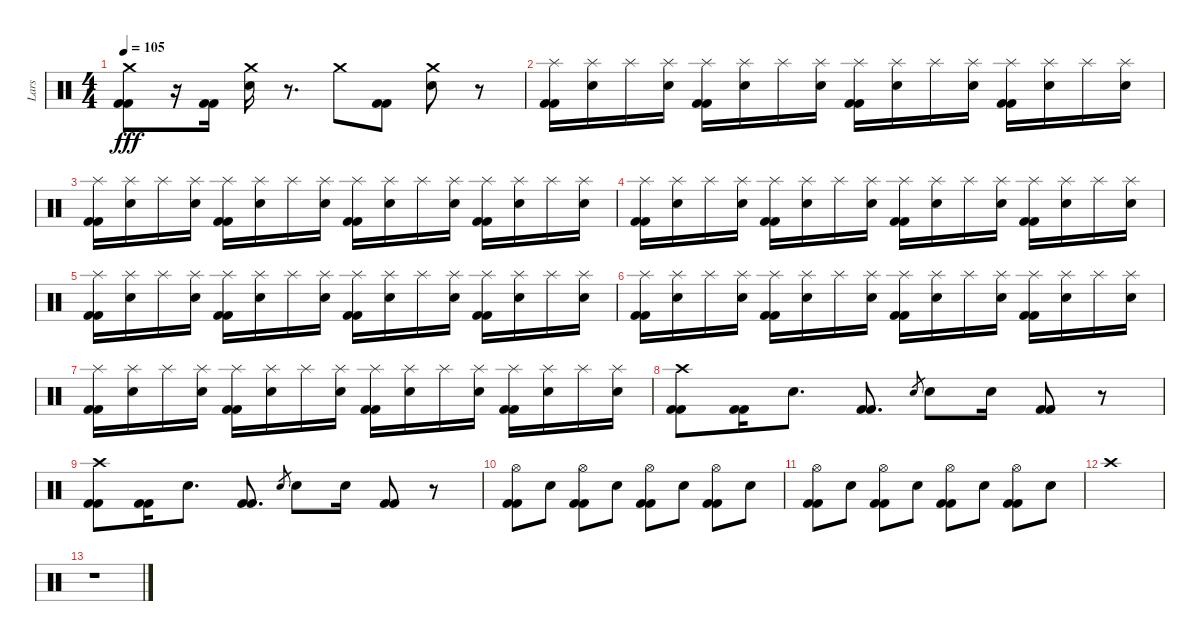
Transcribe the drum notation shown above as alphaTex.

\track ("Lars" "Lars") {instrument percussion}
\staff {score}
\articulation defaults
\ts (4 4)
\tempo 105
\clef neutral
\ks c
("Crash medium (hit)" "Kick (hit) 2" "Kick (hit) 2").8{dy fff} r.16 ("Kick (hit) 2" "Kick (hit) 2").16 ("Crash medium (hit)" "Electric Snare (hit)").16 r.8{d} "Crash medium (hit)".8 ("Kick (hit) 2" "Kick (hit) 2").8 ("Crash medium (hit)" "Electric Snare (hit)").8 r.8 |
("Splash (hit)" "Kick (hit) 2" "Kick (hit) 2").16 ("Splash (hit)" "Electric Snare (hit)").16 "Splash (hit)".16 ("Splash (hit)" "Electric Snare (hit)").16 ("Splash (hit)" "Kick (hit) 2" "Kick (hit) 2").16 ("Splash (hit)" "Electric Snare (hit)").16 "Splash (hit)".16 ("Splash (hit)" "Electric Snare (hit)").16 ("Splash (hit)" "Kick (hit) 2" "Kick (hit) 2").16 ("Splash (hit)" "Electric Snare (hit)").16 "Splash (hit)".16 ("Splash (hit)" "Electric Snare (hit)").16 ("Splash (hit)" "Kick (hit) 2" "Kick (hit) 2").16 ("Splash (hit)" "Electric Snare (hit)").16 "Splash (hit)".16 ("Splash (hit)" "Electric Snare (hit)").16 |
("Splash (hit)" "Kick (hit) 2" "Kick (hit) 2").16 ("Splash (hit)" "Electric Snare (hit)").16 "Splash (hit)".16 ("Splash (hit)" "Electric Snare (hit)").16 ("Splash (hit)" "Kick (hit) 2" "Kick (hit) 2").16 ("Splash (hit)" "Electric Snare (hit)").16 "Splash (hit)".16 ("Splash (hit)" "Electric Snare (hit)").16 ("Splash (hit)" "Kick (hit) 2" "Kick (hit) 2").16 ("Splash (hit)" "Electric Snare (hit)").16 "Splash (hit)".16 ("Splash (hit)" "Electric Snare (hit)").16 ("Splash (hit)" "Kick (hit) 2" "Kick (hit) 2").16 ("Splash (hit)" "Electric Snare (hit)").16 "Splash (hit)".16 ("Splash (hit)" "Electric Snare (hit)").16 |
("Splash (hit)" "Kick (hit) 2" "Kick (hit) 2").16 ("Splash (hit)" "Electric Snare (hit)").16 "Splash (hit)".16 ("Splash (hit)" "Electric Snare (hit)").16 ("Splash (hit)" "Kick (hit) 2" "Kick (hit) 2").16 ("Splash (hit)" "Electric Snare (hit)").16 "Splash (hit)".16 ("Splash (hit)" "Electric Snare (hit)").16 ("Splash (hit)" "Kick (hit) 2" "Kick (hit) 2").16 ("Splash (hit)" "Electric Snare (hit)").16 "Splash (hit)".16 ("Splash (hit)" "Electric Snare (hit)").16 ("Splash (hit)" "Kick (hit) 2" "Kick (hit) 2").16 ("Splash (hit)" "Electric Snare (hit)").16 "Splash (hit)".16 ("Splash (hit)" "Electric Snare (hit)").16 |
("Splash (hit)" "Kick (hit) 2" "Kick (hit) 2").16 ("Splash (hit)" "Electric Snare (hit)").16 "Splash (hit)".16 ("Splash (hit)" "Electric Snare (hit)").16 ("Splash (hit)" "Kick (hit) 2" "Kick (hit) 2").16 ("Splash (hit)" "Electric Snare (hit)").16 "Splash (hit)".16 ("Splash (hit)" "Electric Snare (hit)").16 ("Splash (hit)" "Kick (hit) 2" "Kick (hit) 2").16 ("Splash (hit)" "Electric Snare (hit)").16 "Splash (hit)".16 ("Splash (hit)" "Electric Snare (hit)").16 ("Splash (hit)" "Kick (hit) 2" "Kick (hit) 2").16 ("Splash (hit)" "Electric Snare (hit)").16 "Splash (hit)".16 ("Splash (hit)" "Electric Snare (hit)").16 |
("Splash (hit)" "Kick (hit) 2" "Kick (hit) 2").16 ("Splash (hit)" "Electric Snare (hit)").16 "Splash (hit)".16 ("Splash (hit)" "Electric Snare (hit)").16 ("Splash (hit)" "Kick (hit) 2" "Kick (hit) 2").16 ("Splash (hit)" "Electric Snare (hit)").16 "Splash (hit)".16 ("Splash (hit)" "Electric Snare (hit)").16 ("Splash (hit)" "Kick (hit) 2" "Kick (hit) 2").16 ("Splash (hit)" "Electric Snare (hit)").16 "Splash (hit)".16 ("Splash (hit)" "Electric Snare (hit)").16 ("Splash (hit)" "Kick (hit) 2" "Kick (hit) 2").16 ("Splash (hit)" "Electric Snare (hit)").16 "Splash (hit)".16 ("Splash (hit)" "Electric Snare (hit)").16 |
("Splash (hit)" "Kick (hit) 2" "Kick (hit) 2").16 ("Splash (hit)" "Electric Snare (hit)").16 "Splash (hit)".16 ("Splash (hit)" "Electric Snare (hit)").16 ("Splash (hit)" "Kick (hit) 2" "Kick (hit) 2").16 ("Splash (hit)" "Electric Snare (hit)").16 "Splash (hit)".16 ("Splash (hit)" "Electric Snare (hit)").16 ("Splash (hit)" "Kick (hit) 2" "Kick (hit) 2").16 ("Splash (hit)" "Electric Snare (hit)").16 "Splash (hit)".16 ("Splash (hit)" "Electric Snare (hit)").16 ("Splash (hit)" "Kick (hit) 2" "Kick (hit) 2").16 ("Splash (hit)" "Electric Snare (hit)").16 "Splash (hit)".16 ("Splash (hit)" "Electric Snare (hit)").16 |
("Crash high (hit)" "Kick (hit) 2" "Kick (hit) 2").8 ("Kick (hit) 2" "Kick (hit) 2").16 "Electric Snare (hit)".8{d} ("Kick (hit) 2" "Kick (hit) 2").8{d} "Electric Snare (hit)".8{gr} "Electric Snare (hit)".8 "Electric Snare (hit)".16 ("Kick (hit) 2" "Kick (hit) 2").8 r.8 |
("Crash high (hit)" "Kick (hit) 2" "Kick (hit) 2").8 ("Kick (hit) 2" "Kick (hit) 2").16 "Electric Snare (hit)".8{d} ("Kick (hit) 2" "Kick (hit) 2").8{d} "Electric Snare (hit)".8{gr} "Electric Snare (hit)".8 "Electric Snare (hit)".16 ("Kick (hit) 2" "Kick (hit) 2").8 r.8 |
("Hi-Hat (open)" "Kick (hit) 2" "Kick (hit) 2").8 "Electric Snare (hit)".8 ("Hi-Hat (open)" "Kick (hit) 2" "Kick (hit) 2").8 "Electric Snare (hit)".8 ("Hi-Hat (open)" "Kick (hit) 2" "Kick (hit) 2").8 "Electric Snare (hit)".8 ("Hi-Hat (open)" "Kick (hit) 2" "Kick (hit) 2").8 "Electric Snare (hit)".8 |
("Hi-Hat (open)" "Kick (hit) 2" "Kick (hit) 2").8 "Electric Snare (hit)".8 ("Hi-Hat (open)" "Kick (hit) 2" "Kick (hit) 2").8 "Electric Snare (hit)".8 ("Hi-Hat (open)" "Kick (hit) 2" "Kick (hit) 2").8 "Electric Snare (hit)".8 ("Hi-Hat (open)" "Kick (hit) 2" "Kick (hit) 2").8 "Electric Snare (hit)".8 |
"Crash high (hit)".1 |
r.1
